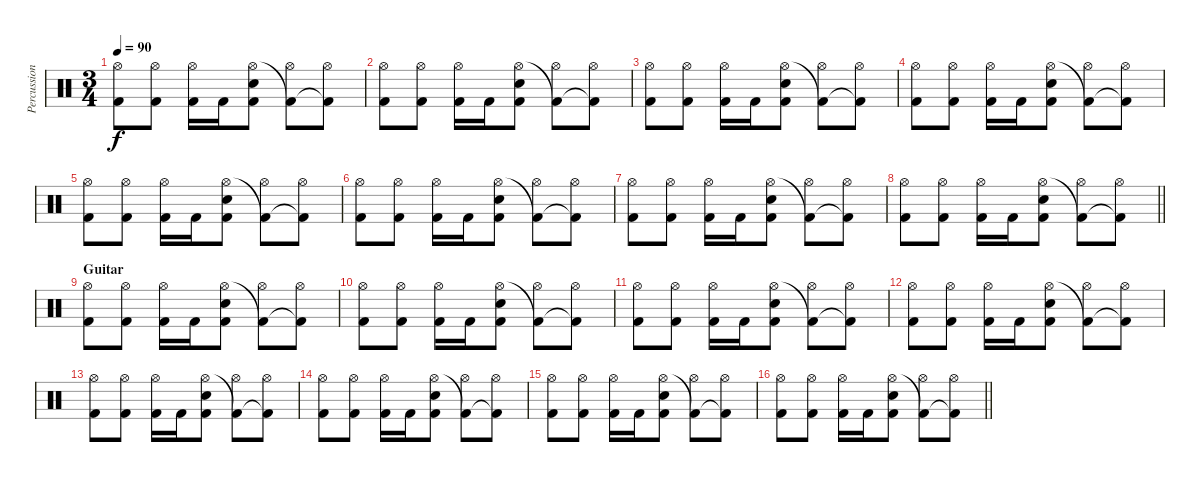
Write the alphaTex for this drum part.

\track ("Percussioni" "Percussion") {instrument percussion}
\staff {score}
\articulation defaults
\ts (3 4)
\tempo 90
\clef neutral
\ks c
("Hi-Hat (open)" "Kick (hit) 2").8{dy f} ("Hi-Hat (open)" "Kick (hit) 2").8 ("Hi-Hat (open)" "Kick (hit) 2").16 "Kick (hit) 2".16 ("Snare (hit) 2" "Hi-Hat (open)" "Kick (hit) 2").8 ("Hi-Hat (open)" "Kick (hit) 2"{t}).8 ("Hi-Hat (open)" "Kick (hit) 2"{t}).8 |
("Hi-Hat (open)" "Kick (hit) 2").8 ("Hi-Hat (open)" "Kick (hit) 2").8 ("Hi-Hat (open)" "Kick (hit) 2").16 "Kick (hit) 2".16 ("Snare (hit) 2" "Hi-Hat (open)" "Kick (hit) 2").8 ("Hi-Hat (open)" "Kick (hit) 2"{t}).8 ("Hi-Hat (open)" "Kick (hit) 2"{t}).8 |
("Hi-Hat (open)" "Kick (hit) 2").8 ("Hi-Hat (open)" "Kick (hit) 2").8 ("Hi-Hat (open)" "Kick (hit) 2").16 "Kick (hit) 2".16 ("Snare (hit) 2" "Hi-Hat (open)" "Kick (hit) 2").8 ("Hi-Hat (open)" "Kick (hit) 2"{t}).8 ("Hi-Hat (open)" "Kick (hit) 2"{t}).8 |
("Hi-Hat (open)" "Kick (hit) 2").8 ("Hi-Hat (open)" "Kick (hit) 2").8 ("Hi-Hat (open)" "Kick (hit) 2").16 "Kick (hit) 2".16 ("Snare (hit) 2" "Hi-Hat (open)" "Kick (hit) 2").8 ("Hi-Hat (open)" "Kick (hit) 2"{t}).8 ("Hi-Hat (open)" "Kick (hit) 2"{t}).8 |
("Hi-Hat (open)" "Kick (hit) 2").8 ("Hi-Hat (open)" "Kick (hit) 2").8 ("Hi-Hat (open)" "Kick (hit) 2").16 "Kick (hit) 2".16 ("Snare (hit) 2" "Hi-Hat (open)" "Kick (hit) 2").8 ("Hi-Hat (open)" "Kick (hit) 2"{t}).8 ("Hi-Hat (open)" "Kick (hit) 2"{t}).8 |
("Hi-Hat (open)" "Kick (hit) 2").8 ("Hi-Hat (open)" "Kick (hit) 2").8 ("Hi-Hat (open)" "Kick (hit) 2").16 "Kick (hit) 2".16 ("Snare (hit) 2" "Hi-Hat (open)" "Kick (hit) 2").8 ("Hi-Hat (open)" "Kick (hit) 2"{t}).8 ("Hi-Hat (open)" "Kick (hit) 2"{t}).8 |
("Hi-Hat (open)" "Kick (hit) 2").8 ("Hi-Hat (open)" "Kick (hit) 2").8 ("Hi-Hat (open)" "Kick (hit) 2").16 "Kick (hit) 2".16 ("Snare (hit) 2" "Hi-Hat (open)" "Kick (hit) 2").8 ("Hi-Hat (open)" "Kick (hit) 2"{t}).8 ("Hi-Hat (open)" "Kick (hit) 2"{t}).8 |
\barLineRight lightlight
("Hi-Hat (open)" "Kick (hit) 2").8 ("Hi-Hat (open)" "Kick (hit) 2").8 ("Hi-Hat (open)" "Kick (hit) 2").16 "Kick (hit) 2".16 ("Snare (hit) 2" "Hi-Hat (open)" "Kick (hit) 2").8 ("Hi-Hat (open)" "Kick (hit) 2"{t}).8 ("Hi-Hat (open)" "Kick (hit) 2"{t}).8 |
\section ("" "Guitar")
("Hi-Hat (open)" "Kick (hit) 2").8 ("Hi-Hat (open)" "Kick (hit) 2").8 ("Hi-Hat (open)" "Kick (hit) 2").16 "Kick (hit) 2".16 ("Snare (hit) 2" "Hi-Hat (open)" "Kick (hit) 2").8 ("Hi-Hat (open)" "Kick (hit) 2"{t}).8 ("Hi-Hat (open)" "Kick (hit) 2"{t}).8 |
("Hi-Hat (open)" "Kick (hit) 2").8 ("Hi-Hat (open)" "Kick (hit) 2").8 ("Hi-Hat (open)" "Kick (hit) 2").16 "Kick (hit) 2".16 ("Snare (hit) 2" "Hi-Hat (open)" "Kick (hit) 2").8 ("Hi-Hat (open)" "Kick (hit) 2"{t}).8 ("Hi-Hat (open)" "Kick (hit) 2"{t}).8 |
("Hi-Hat (open)" "Kick (hit) 2").8 ("Hi-Hat (open)" "Kick (hit) 2").8 ("Hi-Hat (open)" "Kick (hit) 2").16 "Kick (hit) 2".16 ("Snare (hit) 2" "Hi-Hat (open)" "Kick (hit) 2").8 ("Hi-Hat (open)" "Kick (hit) 2"{t}).8 ("Hi-Hat (open)" "Kick (hit) 2"{t}).8 |
("Hi-Hat (open)" "Kick (hit) 2").8 ("Hi-Hat (open)" "Kick (hit) 2").8 ("Hi-Hat (open)" "Kick (hit) 2").16 "Kick (hit) 2".16 ("Snare (hit) 2" "Hi-Hat (open)" "Kick (hit) 2").8 ("Hi-Hat (open)" "Kick (hit) 2"{t}).8 ("Hi-Hat (open)" "Kick (hit) 2"{t}).8 |
("Hi-Hat (open)" "Kick (hit) 2").8 ("Hi-Hat (open)" "Kick (hit) 2").8 ("Hi-Hat (open)" "Kick (hit) 2").16 "Kick (hit) 2".16 ("Snare (hit) 2" "Hi-Hat (open)" "Kick (hit) 2").8 ("Hi-Hat (open)" "Kick (hit) 2"{t}).8 ("Hi-Hat (open)" "Kick (hit) 2"{t}).8 |
("Hi-Hat (open)" "Kick (hit) 2").8 ("Hi-Hat (open)" "Kick (hit) 2").8 ("Hi-Hat (open)" "Kick (hit) 2").16 "Kick (hit) 2".16 ("Snare (hit) 2" "Hi-Hat (open)" "Kick (hit) 2").8 ("Hi-Hat (open)" "Kick (hit) 2"{t}).8 ("Hi-Hat (open)" "Kick (hit) 2"{t}).8 |
("Hi-Hat (open)" "Kick (hit) 2").8 ("Hi-Hat (open)" "Kick (hit) 2").8 ("Hi-Hat (open)" "Kick (hit) 2").16 "Kick (hit) 2".16 ("Snare (hit) 2" "Hi-Hat (open)" "Kick (hit) 2").8 ("Hi-Hat (open)" "Kick (hit) 2"{t}).8 ("Hi-Hat (open)" "Kick (hit) 2"{t}).8 |
\barLineRight lightlight
("Hi-Hat (open)" "Kick (hit) 2").8 ("Hi-Hat (open)" "Kick (hit) 2").8 ("Hi-Hat (open)" "Kick (hit) 2").16 "Kick (hit) 2".16 ("Snare (hit) 2" "Hi-Hat (open)" "Kick (hit) 2").8 ("Hi-Hat (open)" "Kick (hit) 2"{t}).8 ("Hi-Hat (open)" "Kick (hit) 2"{t}).8
